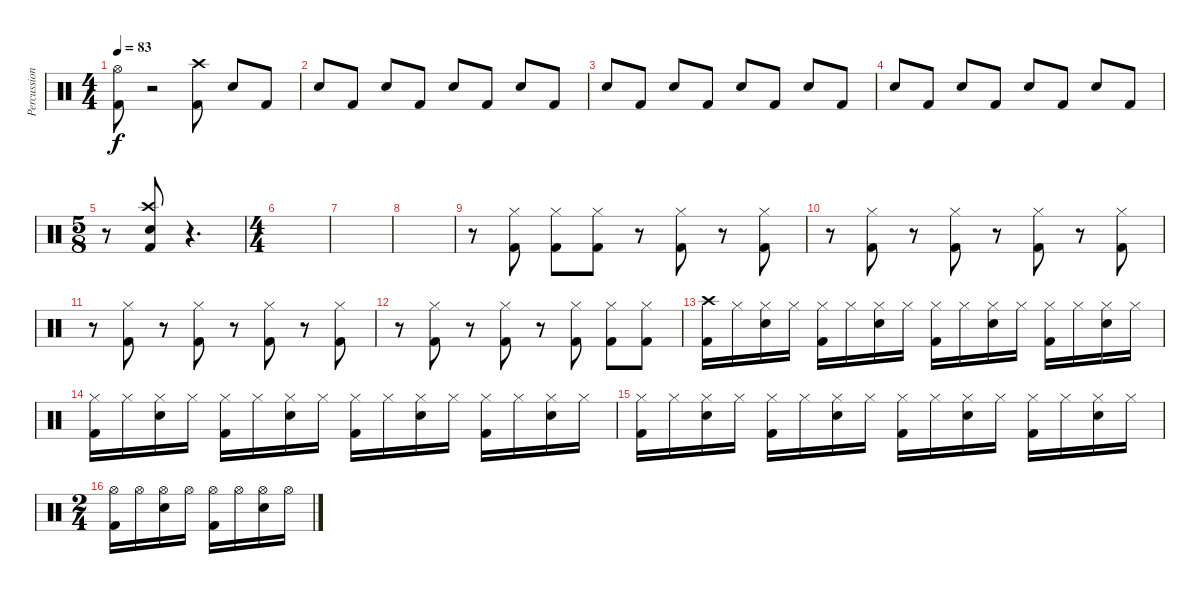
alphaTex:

\track ("Percussion" "Percussion") {instrument percussion}
\staff {score}
\articulation defaults
\ts (4 4)
\tempo 83
\clef neutral
\ks c
("Hi-Hat (open)" "Kick (hit) 2").8{dy f} r.2 ("Crash high (hit)" "Kick (hit) 2").8 "Electric Snare (hit)".8 "Kick (hit) 2".8 |
"Electric Snare (hit)".8 "Kick (hit) 2".8 "Electric Snare (hit)".8 "Kick (hit) 2".8 "Electric Snare (hit)".8 "Kick (hit) 2".8 "Electric Snare (hit)".8 "Kick (hit) 2".8 |
"Electric Snare (hit)".8 "Kick (hit) 2".8 "Electric Snare (hit)".8 "Kick (hit) 2".8 "Electric Snare (hit)".8 "Kick (hit) 2".8 "Electric Snare (hit)".8 "Kick (hit) 2".8 |
"Electric Snare (hit)".8 "Kick (hit) 2".8 "Electric Snare (hit)".8 "Kick (hit) 2".8 "Electric Snare (hit)".8 "Kick (hit) 2".8 "Electric Snare (hit)".8 "Kick (hit) 2".8 |
\ts (5 8)
r.8 ("Crash high (hit)" "Electric Snare (hit)" "Kick (hit) 2").8 r.4{d} |
\ts (4 4)
|
|
|
r.8 ("Hi-Hat (closed)" "Kick (hit) 2").8 ("Hi-Hat (closed)" "Kick (hit) 2").8 ("Hi-Hat (closed)" "Kick (hit) 2").8 r.8 ("Hi-Hat (closed)" "Kick (hit) 2").8 r.8 ("Hi-Hat (closed)" "Kick (hit) 2").8 |
r.8 ("Hi-Hat (closed)" "Kick (hit) 2").8 r.8 ("Hi-Hat (closed)" "Kick (hit) 2").8 r.8 ("Hi-Hat (closed)" "Kick (hit) 2").8 r.8 ("Hi-Hat (closed)" "Kick (hit) 2").8 |
r.8 ("Hi-Hat (closed)" "Kick (hit) 2").8 r.8 ("Hi-Hat (closed)" "Kick (hit) 2").8 r.8 ("Hi-Hat (closed)" "Kick (hit) 2").8 r.8 ("Hi-Hat (closed)" "Kick (hit) 2").8 |
r.8 ("Hi-Hat (closed)" "Kick (hit) 2").8 r.8 ("Hi-Hat (closed)" "Kick (hit) 2").8 r.8 ("Hi-Hat (closed)" "Kick (hit) 2").8 ("Hi-Hat (closed)" "Kick (hit) 2").8 ("Hi-Hat (closed)" "Kick (hit) 2").8 |
("Crash high (hit)" "Kick (hit) 2").16 "Hi-Hat (closed)".16 ("Hi-Hat (closed)" "Electric Snare (hit)").16 "Hi-Hat (closed)".16 ("Hi-Hat (closed)" "Kick (hit) 2").16 "Hi-Hat (closed)".16 ("Hi-Hat (closed)" "Electric Snare (hit)").16 "Hi-Hat (closed)".16 ("Hi-Hat (closed)" "Kick (hit) 2").16 "Hi-Hat (closed)".16 ("Hi-Hat (closed)" "Electric Snare (hit)").16 "Hi-Hat (closed)".16 ("Hi-Hat (closed)" "Kick (hit) 2").16 "Hi-Hat (closed)".16 ("Hi-Hat (closed)" "Electric Snare (hit)").16 "Hi-Hat (closed)".16 |
("Hi-Hat (closed)" "Kick (hit) 2").16 "Hi-Hat (closed)".16 ("Hi-Hat (closed)" "Electric Snare (hit)").16 "Hi-Hat (closed)".16 ("Hi-Hat (closed)" "Kick (hit) 2").16 "Hi-Hat (closed)".16 ("Hi-Hat (closed)" "Electric Snare (hit)").16 "Hi-Hat (closed)".16 ("Hi-Hat (closed)" "Kick (hit) 2").16 "Hi-Hat (closed)".16 ("Hi-Hat (closed)" "Electric Snare (hit)").16 "Hi-Hat (closed)".16 ("Hi-Hat (closed)" "Kick (hit) 2").16 "Hi-Hat (closed)".16 ("Hi-Hat (closed)" "Electric Snare (hit)").16 "Hi-Hat (closed)".16 |
("Hi-Hat (closed)" "Kick (hit) 2").16 "Hi-Hat (closed)".16 ("Hi-Hat (closed)" "Electric Snare (hit)").16 "Hi-Hat (closed)".16 ("Hi-Hat (closed)" "Kick (hit) 2").16 "Hi-Hat (closed)".16 ("Hi-Hat (closed)" "Electric Snare (hit)").16 "Hi-Hat (closed)".16 ("Hi-Hat (closed)" "Kick (hit) 2").16 "Hi-Hat (closed)".16 ("Hi-Hat (closed)" "Electric Snare (hit)").16 "Hi-Hat (closed)".16 ("Hi-Hat (closed)" "Kick (hit) 2").16 "Hi-Hat (closed)".16 ("Hi-Hat (closed)" "Electric Snare (hit)").16 "Hi-Hat (closed)".16 |
\ts (2 4)
("Hi-Hat (open)" "Kick (hit) 2").16 "Hi-Hat (open)".16 ("Hi-Hat (open)" "Electric Snare (hit)").16 "Hi-Hat (open)".16 ("Hi-Hat (open)" "Kick (hit) 2").16 "Hi-Hat (open)".16 ("Hi-Hat (open)" "Electric Snare (hit)").16 "Hi-Hat (open)".16
